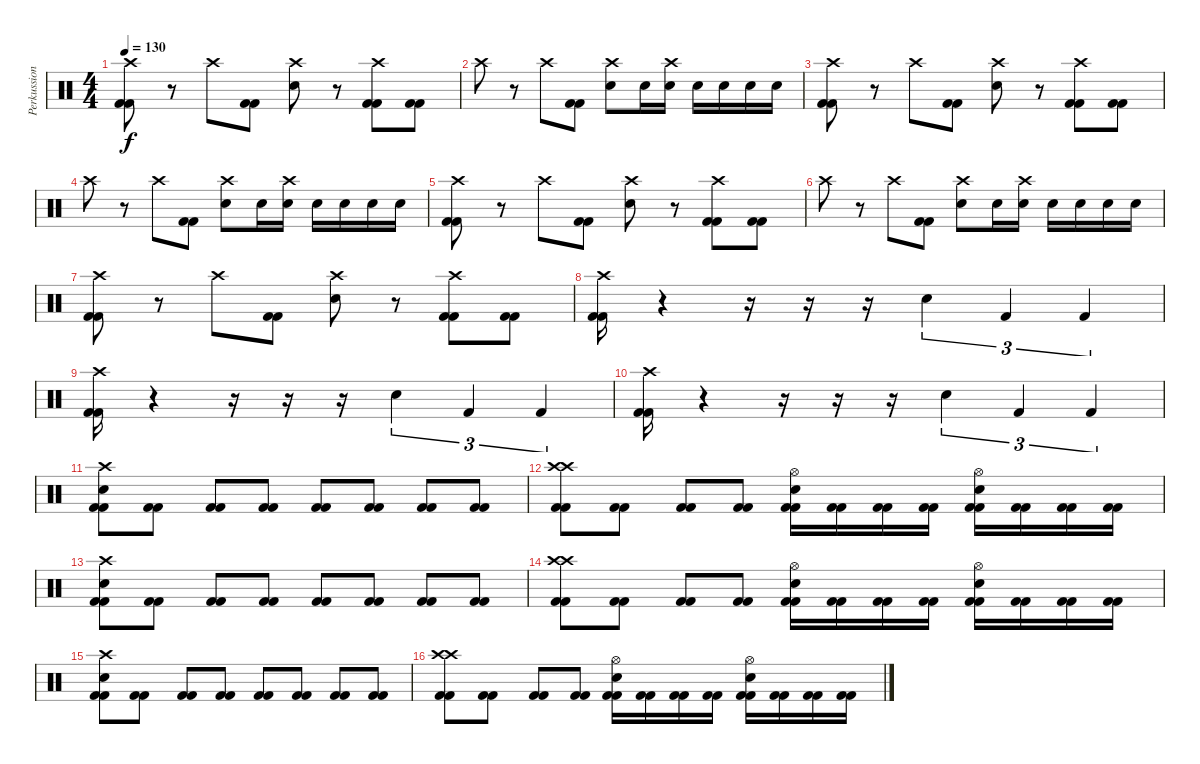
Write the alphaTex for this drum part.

\track ("Perkussion" "Perkussion") {instrument percussion}
\staff {score}
\articulation defaults
\ts (4 4)
\tempo 130
\clef neutral
\ks c
("Crash high (hit)" "Kick (hit) 2" "Kick (hit) 2").8{dy f} r.8 "Crash high (hit)".8 ("Kick (hit) 2" "Kick (hit) 2").8 ("Crash high (hit)" "Electric Snare (hit)").8 r.8 ("Crash high (hit)" "Kick (hit) 2" "Kick (hit) 2").8 ("Kick (hit) 2" "Kick (hit) 2").8 |
"Crash high (hit)".8 r.8 "Crash high (hit)".8 ("Kick (hit) 2" "Kick (hit) 2").8 ("Crash high (hit)" "Electric Snare (hit)").8 "Electric Snare (hit)".16 ("Crash high (hit)" "Electric Snare (hit)").16 "Electric Snare (hit)".16 "Electric Snare (hit)".16 "Electric Snare (hit)".16 "Electric Snare (hit)".16 |
("Crash high (hit)" "Kick (hit) 2" "Kick (hit) 2").8 r.8 "Crash high (hit)".8 ("Kick (hit) 2" "Kick (hit) 2").8 ("Crash high (hit)" "Electric Snare (hit)").8 r.8 ("Crash high (hit)" "Kick (hit) 2" "Kick (hit) 2").8 ("Kick (hit) 2" "Kick (hit) 2").8 |
"Crash high (hit)".8 r.8 "Crash high (hit)".8 ("Kick (hit) 2" "Kick (hit) 2").8 ("Crash high (hit)" "Electric Snare (hit)").8 "Electric Snare (hit)".16 ("Crash high (hit)" "Electric Snare (hit)").16 "Electric Snare (hit)".16 "Electric Snare (hit)".16 "Electric Snare (hit)".16 "Electric Snare (hit)".16 |
("Crash high (hit)" "Kick (hit) 2" "Kick (hit) 2").8 r.8 "Crash high (hit)".8 ("Kick (hit) 2" "Kick (hit) 2").8 ("Crash high (hit)" "Electric Snare (hit)").8 r.8 ("Crash high (hit)" "Kick (hit) 2" "Kick (hit) 2").8 ("Kick (hit) 2" "Kick (hit) 2").8 |
"Crash high (hit)".8 r.8 "Crash high (hit)".8 ("Kick (hit) 2" "Kick (hit) 2").8 ("Crash high (hit)" "Electric Snare (hit)").8 "Electric Snare (hit)".16 ("Crash high (hit)" "Electric Snare (hit)").16 "Electric Snare (hit)".16 "Electric Snare (hit)".16 "Electric Snare (hit)".16 "Electric Snare (hit)".16 |
("Crash high (hit)" "Kick (hit) 2" "Kick (hit) 2").8 r.8 "Crash high (hit)".8 ("Kick (hit) 2" "Kick (hit) 2").8 ("Crash high (hit)" "Electric Snare (hit)").8 r.8 ("Crash high (hit)" "Kick (hit) 2" "Kick (hit) 2").8 ("Kick (hit) 2" "Kick (hit) 2").8 |
("Crash high (hit)" "Kick (hit) 2" "Kick (hit) 2").16 r.4 r.16 r.16 r.16 "Electric Snare (hit)".4{tu (3 2)} "Kick (hit) 2".4{tu (3 2)} "Kick (hit) 2".4{tu (3 2)} |
("Crash high (hit)" "Kick (hit) 2" "Kick (hit) 2").16 r.4 r.16 r.16 r.16 "Electric Snare (hit)".4{tu (3 2)} "Kick (hit) 2".4{tu (3 2)} "Kick (hit) 2".4{tu (3 2)} |
("Crash high (hit)" "Kick (hit) 2" "Kick (hit) 2").16 r.4 r.16 r.16 r.16 "Electric Snare (hit)".4{tu (3 2)} "Kick (hit) 2".4{tu (3 2)} "Kick (hit) 2".4{tu (3 2)} |
("Crash high (hit)" "Electric Snare (hit)" "Kick (hit) 2" "Kick (hit) 2").8 ("Kick (hit) 2" "Kick (hit) 2").8 ("Kick (hit) 2" "Kick (hit) 2").8 ("Kick (hit) 2" "Kick (hit) 2").8 ("Kick (hit) 2" "Kick (hit) 2").8 ("Kick (hit) 2" "Kick (hit) 2").8 ("Kick (hit) 2" "Kick (hit) 2").8 ("Kick (hit) 2" "Kick (hit) 2").8 |
("Crash high (hit)" "Crash high (hit)" "Kick (hit) 2" "Kick (hit) 2").8 ("Kick (hit) 2" "Kick (hit) 2").8 ("Kick (hit) 2" "Kick (hit) 2").8 ("Kick (hit) 2" "Kick (hit) 2").8 ("Hi-Hat (open)" "Electric Snare (hit)" "Kick (hit) 2" "Kick (hit) 2").16 ("Kick (hit) 2" "Kick (hit) 2").16 ("Kick (hit) 2" "Kick (hit) 2").16 ("Kick (hit) 2" "Kick (hit) 2").16 ("Hi-Hat (open)" "Electric Snare (hit)" "Kick (hit) 2" "Kick (hit) 2").16 ("Kick (hit) 2" "Kick (hit) 2").16 ("Kick (hit) 2" "Kick (hit) 2").16 ("Kick (hit) 2" "Kick (hit) 2").16 |
("Crash high (hit)" "Electric Snare (hit)" "Kick (hit) 2" "Kick (hit) 2").8 ("Kick (hit) 2" "Kick (hit) 2").8 ("Kick (hit) 2" "Kick (hit) 2").8 ("Kick (hit) 2" "Kick (hit) 2").8 ("Kick (hit) 2" "Kick (hit) 2").8 ("Kick (hit) 2" "Kick (hit) 2").8 ("Kick (hit) 2" "Kick (hit) 2").8 ("Kick (hit) 2" "Kick (hit) 2").8 |
("Crash high (hit)" "Crash high (hit)" "Kick (hit) 2" "Kick (hit) 2").8 ("Kick (hit) 2" "Kick (hit) 2").8 ("Kick (hit) 2" "Kick (hit) 2").8 ("Kick (hit) 2" "Kick (hit) 2").8 ("Hi-Hat (open)" "Electric Snare (hit)" "Kick (hit) 2" "Kick (hit) 2").16 ("Kick (hit) 2" "Kick (hit) 2").16 ("Kick (hit) 2" "Kick (hit) 2").16 ("Kick (hit) 2" "Kick (hit) 2").16 ("Hi-Hat (open)" "Electric Snare (hit)" "Kick (hit) 2" "Kick (hit) 2").16 ("Kick (hit) 2" "Kick (hit) 2").16 ("Kick (hit) 2" "Kick (hit) 2").16 ("Kick (hit) 2" "Kick (hit) 2").16 |
("Crash high (hit)" "Electric Snare (hit)" "Kick (hit) 2" "Kick (hit) 2").8 ("Kick (hit) 2" "Kick (hit) 2").8 ("Kick (hit) 2" "Kick (hit) 2").8 ("Kick (hit) 2" "Kick (hit) 2").8 ("Kick (hit) 2" "Kick (hit) 2").8 ("Kick (hit) 2" "Kick (hit) 2").8 ("Kick (hit) 2" "Kick (hit) 2").8 ("Kick (hit) 2" "Kick (hit) 2").8 |
("Crash high (hit)" "Crash high (hit)" "Kick (hit) 2" "Kick (hit) 2").8 ("Kick (hit) 2" "Kick (hit) 2").8 ("Kick (hit) 2" "Kick (hit) 2").8 ("Kick (hit) 2" "Kick (hit) 2").8 ("Hi-Hat (open)" "Electric Snare (hit)" "Kick (hit) 2" "Kick (hit) 2").16 ("Kick (hit) 2" "Kick (hit) 2").16 ("Kick (hit) 2" "Kick (hit) 2").16 ("Kick (hit) 2" "Kick (hit) 2").16 ("Hi-Hat (open)" "Electric Snare (hit)" "Kick (hit) 2" "Kick (hit) 2").16 ("Kick (hit) 2" "Kick (hit) 2").16 ("Kick (hit) 2" "Kick (hit) 2").16 ("Kick (hit) 2" "Kick (hit) 2").16
